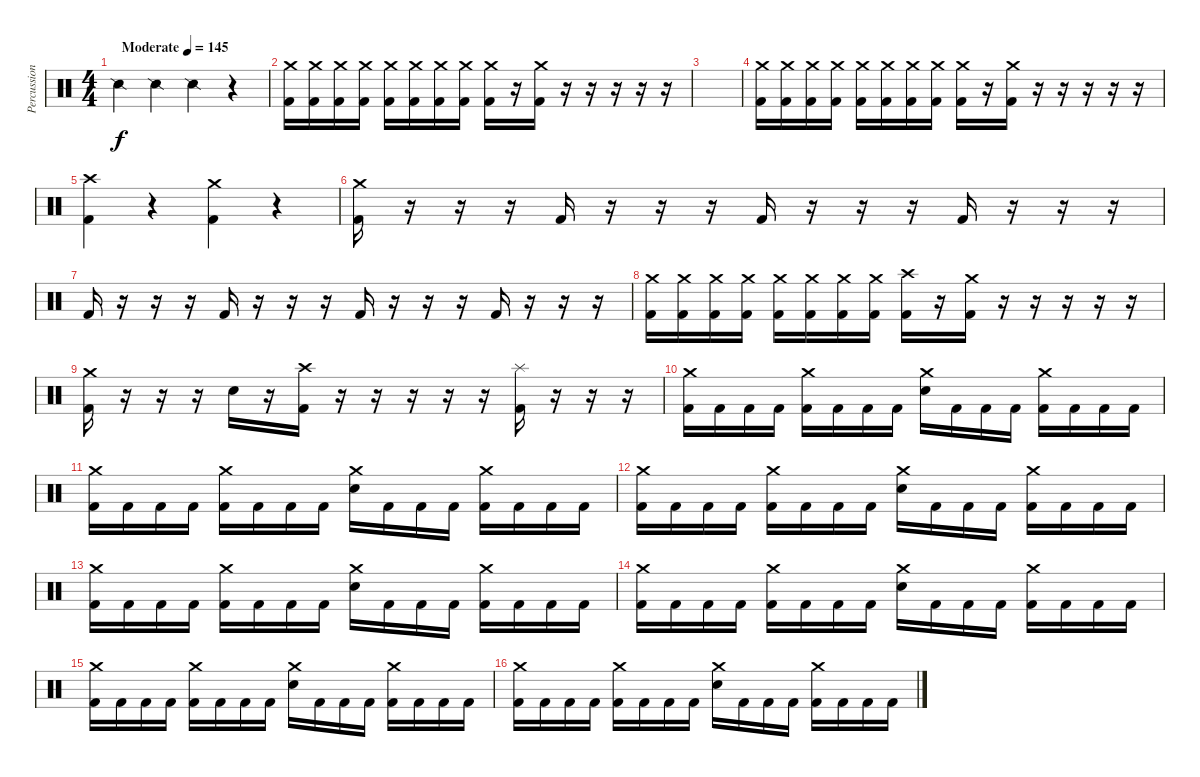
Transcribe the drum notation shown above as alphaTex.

\track ("Percussion" "Percussion") {instrument percussion}
\staff {score}
\articulation defaults
\ts (4 4)
\tempo (145 "Moderate")
\clef neutral
\ks c "Snare (side stick) 2".4{dy f} "Snare (side stick) 2".4 "Snare (side stick) 2".4
r.4 |
("Crash medium (hit)" "Kick (hit) 2").16 ("Crash medium (hit)" "Kick (hit) 2").16 ("Crash medium (hit)" "Kick (hit) 2").16 ("Crash medium (hit)" "Kick (hit) 2").16 ("Crash medium (hit)" "Kick (hit) 2").16 ("Crash medium (hit)" "Kick (hit) 2").16 ("Crash medium (hit)" "Kick (hit) 2").16 ("Crash medium (hit)" "Kick (hit) 2").16 ("Crash medium (hit)" "Kick (hit) 2").16 r.16 ("Crash medium (hit)" "Kick (hit) 2").16 r.16 r.16 r.16 r.16 r.16 |
|
("Crash medium (hit)" "Kick (hit) 2").16 ("Crash medium (hit)" "Kick (hit) 2").16 ("Crash medium (hit)" "Kick (hit) 2").16 ("Crash medium (hit)" "Kick (hit) 2").16 ("Crash medium (hit)" "Kick (hit) 2").16 ("Crash medium (hit)" "Kick (hit) 2").16 ("Crash medium (hit)" "Kick (hit) 2").16 ("Crash medium (hit)" "Kick (hit) 2").16 ("Crash medium (hit)" "Kick (hit) 2").16 r.16 ("Crash medium (hit)" "Kick (hit) 2").16 r.16 r.16 r.16 r.16 r.16 |
("Crash high (hit)" "Kick (hit) 2").4 r.4 ("Crash medium (hit)" "Kick (hit) 2").4 r.4 |
("Crash medium (hit)" "Kick (hit) 2").16 r.16 r.16 r.16 "Kick (hit) 2".16 r.16 r.16 r.16 "Kick (hit) 2".16 r.16 r.16 r.16 "Kick (hit) 2".16 r.16 r.16 r.16 |
"Kick (hit) 2".16 r.16 r.16 r.16 "Kick (hit) 2".16 r.16 r.16 r.16 "Kick (hit) 2".16 r.16 r.16 r.16 "Kick (hit) 2".16 r.16 r.16 r.16 |
("Crash medium (hit)" "Kick (hit) 2").16 ("Crash medium (hit)" "Kick (hit) 2").16 ("Crash medium (hit)" "Kick (hit) 2").16 ("Crash medium (hit)" "Kick (hit) 2").16 ("Crash medium (hit)" "Kick (hit) 2").16 ("Crash medium (hit)" "Kick (hit) 2").16 ("Crash medium (hit)" "Kick (hit) 2").16 ("Crash medium (hit)" "Kick (hit) 2").16 ("Crash high (hit)" "Kick (hit) 2").16 r.16 ("Crash medium (hit)" "Kick (hit) 2").16 r.16 r.16 r.16 r.16 r.16 |
("Crash medium (hit)" "Kick (hit) 2").16 r.16 r.16 r.16 "Electric Snare (hit)".16 r.16 ("Crash high (hit)" "Kick (hit) 2").16 r.16 r.16 r.16 r.16 r.16 ("Splash (hit)" "Kick (hit) 2").16 r.16 r.16 r.16 |
("Crash medium (hit)" "Kick (hit) 2").16 "Kick (hit) 2".16 "Kick (hit) 2".16 "Kick (hit) 2".16 ("Crash medium (hit)" "Kick (hit) 2").16 "Kick (hit) 2".16 "Kick (hit) 2".16 "Kick (hit) 2".16 ("Electric Snare (hit)" "Crash medium (hit)").16 "Kick (hit) 2".16 "Kick (hit) 2".16 "Kick (hit) 2".16 ("Crash medium (hit)" "Kick (hit) 2").16 "Kick (hit) 2".16 "Kick (hit) 2".16 "Kick (hit) 2".16 |
("Crash medium (hit)" "Kick (hit) 2").16 "Kick (hit) 2".16 "Kick (hit) 2".16 "Kick (hit) 2".16 ("Crash medium (hit)" "Kick (hit) 2").16 "Kick (hit) 2".16 "Kick (hit) 2".16 "Kick (hit) 2".16 ("Electric Snare (hit)" "Crash medium (hit)").16 "Kick (hit) 2".16 "Kick (hit) 2".16 "Kick (hit) 2".16 ("Crash medium (hit)" "Kick (hit) 2").16 "Kick (hit) 2".16 "Kick (hit) 2".16 "Kick (hit) 2".16 |
("Crash medium (hit)" "Kick (hit) 2").16 "Kick (hit) 2".16 "Kick (hit) 2".16 "Kick (hit) 2".16 ("Crash medium (hit)" "Kick (hit) 2").16 "Kick (hit) 2".16 "Kick (hit) 2".16 "Kick (hit) 2".16 ("Electric Snare (hit)" "Crash medium (hit)").16 "Kick (hit) 2".16 "Kick (hit) 2".16 "Kick (hit) 2".16 ("Crash medium (hit)" "Kick (hit) 2").16 "Kick (hit) 2".16 "Kick (hit) 2".16 "Kick (hit) 2".16 |
("Crash medium (hit)" "Kick (hit) 2").16 "Kick (hit) 2".16 "Kick (hit) 2".16 "Kick (hit) 2".16 ("Crash medium (hit)" "Kick (hit) 2").16 "Kick (hit) 2".16 "Kick (hit) 2".16 "Kick (hit) 2".16 ("Electric Snare (hit)" "Crash medium (hit)").16 "Kick (hit) 2".16 "Kick (hit) 2".16 "Kick (hit) 2".16 ("Crash medium (hit)" "Kick (hit) 2").16 "Kick (hit) 2".16 "Kick (hit) 2".16 "Kick (hit) 2".16 |
("Crash medium (hit)" "Kick (hit) 2").16 "Kick (hit) 2".16 "Kick (hit) 2".16 "Kick (hit) 2".16 ("Crash medium (hit)" "Kick (hit) 2").16 "Kick (hit) 2".16 "Kick (hit) 2".16 "Kick (hit) 2".16 ("Electric Snare (hit)" "Crash medium (hit)").16 "Kick (hit) 2".16 "Kick (hit) 2".16 "Kick (hit) 2".16 ("Crash medium (hit)" "Kick (hit) 2").16 "Kick (hit) 2".16 "Kick (hit) 2".16 "Kick (hit) 2".16 |
("Crash medium (hit)" "Kick (hit) 2").16 "Kick (hit) 2".16 "Kick (hit) 2".16 "Kick (hit) 2".16 ("Crash medium (hit)" "Kick (hit) 2").16 "Kick (hit) 2".16 "Kick (hit) 2".16 "Kick (hit) 2".16 ("Electric Snare (hit)" "Crash medium (hit)").16 "Kick (hit) 2".16 "Kick (hit) 2".16 "Kick (hit) 2".16 ("Crash medium (hit)" "Kick (hit) 2").16 "Kick (hit) 2".16 "Kick (hit) 2".16 "Kick (hit) 2".16 |
("Crash medium (hit)" "Kick (hit) 2").16 "Kick (hit) 2".16 "Kick (hit) 2".16 "Kick (hit) 2".16 ("Crash medium (hit)" "Kick (hit) 2").16 "Kick (hit) 2".16 "Kick (hit) 2".16 "Kick (hit) 2".16 ("Electric Snare (hit)" "Crash medium (hit)").16 "Kick (hit) 2".16 "Kick (hit) 2".16 "Kick (hit) 2".16 ("Crash medium (hit)" "Kick (hit) 2").16 "Kick (hit) 2".16 "Kick (hit) 2".16 "Kick (hit) 2".16
